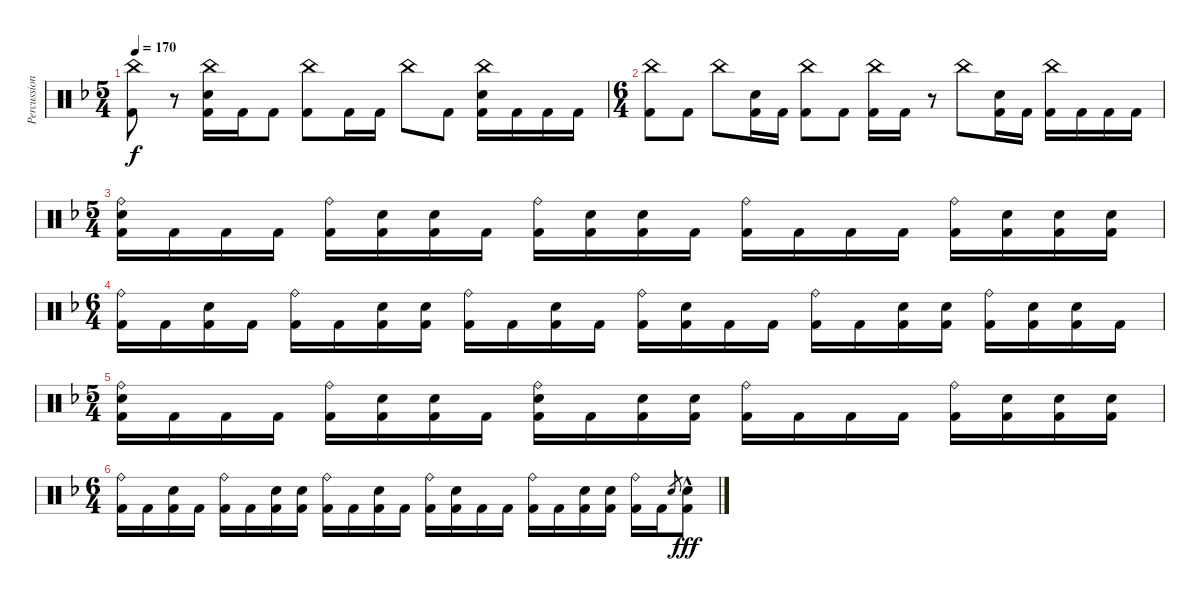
\track ("Percussion" "Percussion") {instrument percussion}
\staff {score}
\articulation defaults
\ts (5 4)
\tempo 170
\clef neutral
\ks dminor
("China (hit)" "Kick (hit) 2").8{dy f} r.8 ("China (hit)" "Electric Snare (hit)" "Kick (hit) 2").16 "Kick (hit) 2".16 "Kick (hit) 2".8 ("China (hit)" "Kick (hit) 2").8 "Kick (hit) 2".16 "Kick (hit) 2".16 "China (hit)".8 "Kick (hit) 2".8 ("China (hit)" "Electric Snare (hit)" "Kick (hit) 2").16 "Kick (hit) 2".16 "Kick (hit) 2".16 "Kick (hit) 2".16 |
\ts (6 4)
("China (hit)" "Kick (hit) 2").8 "Kick (hit) 2".8 "China (hit)".8 ("Electric Snare (hit)" "Kick (hit) 2").16 "Kick (hit) 2".16 ("China (hit)" "Kick (hit) 2").8 "Kick (hit) 2".8 ("China (hit)" "Kick (hit) 2").16 "Kick (hit) 2".16 r.8 "China (hit)".8 ("Electric Snare (hit)" "Kick (hit) 2").16 "Kick (hit) 2".16 ("China (hit)" "Kick (hit) 2").16 "Kick (hit) 2".16 "Kick (hit) 2".16 "Kick (hit) 2".16 |
\ts (5 4)
("Ride (bell)" "Electric Snare (hit)" "Kick (hit) 2").16 "Kick (hit) 2".16 "Kick (hit) 2".16 "Kick (hit) 2".16 ("Ride (bell)" "Kick (hit) 2").16 ("Electric Snare (hit)" "Kick (hit) 2").16 ("Electric Snare (hit)" "Kick (hit) 2").16 "Kick (hit) 2".16 ("Ride (bell)" "Kick (hit) 2").16 ("Electric Snare (hit)" "Kick (hit) 2").16 ("Electric Snare (hit)" "Kick (hit) 2").16 "Kick (hit) 2".16 ("Ride (bell)" "Kick (hit) 2").16 "Kick (hit) 2".16 "Kick (hit) 2".16 "Kick (hit) 2".16 ("Ride (bell)" "Kick (hit) 2").16 ("Electric Snare (hit)" "Kick (hit) 2").16 ("Electric Snare (hit)" "Kick (hit) 2").16 ("Electric Snare (hit)" "Kick (hit) 2").16 |
\ts (6 4)
("Ride (bell)" "Kick (hit) 2").16 "Kick (hit) 2".16 ("Electric Snare (hit)" "Kick (hit) 2").16 "Kick (hit) 2".16 ("Ride (bell)" "Kick (hit) 2").16 "Kick (hit) 2".16 ("Electric Snare (hit)" "Kick (hit) 2").16 ("Electric Snare (hit)" "Kick (hit) 2").16 ("Ride (bell)" "Kick (hit) 2").16 "Kick (hit) 2".16 ("Electric Snare (hit)" "Kick (hit) 2").16 "Kick (hit) 2".16 ("Ride (bell)" "Kick (hit) 2").16 ("Electric Snare (hit)" "Kick (hit) 2").16 "Kick (hit) 2".16 "Kick (hit) 2".16 ("Ride (bell)" "Kick (hit) 2").16 "Kick (hit) 2".16 ("Electric Snare (hit)" "Kick (hit) 2").16 ("Electric Snare (hit)" "Kick (hit) 2").16 ("Ride (bell)" "Kick (hit) 2").16 ("Electric Snare (hit)" "Kick (hit) 2").16 ("Electric Snare (hit)" "Kick (hit) 2").16 "Kick (hit) 2".16 |
\ts (5 4)
("Ride (bell)" "Electric Snare (hit)" "Kick (hit) 2").16 "Kick (hit) 2".16 "Kick (hit) 2".16 "Kick (hit) 2".16 ("Ride (bell)" "Kick (hit) 2").16 ("Electric Snare (hit)" "Kick (hit) 2").16 ("Electric Snare (hit)" "Kick (hit) 2").16 "Kick (hit) 2".16 ("Ride (bell)" "Electric Snare (hit)" "Kick (hit) 2").16 "Kick (hit) 2".16 ("Electric Snare (hit)" "Kick (hit) 2").16 ("Electric Snare (hit)" "Kick (hit) 2").16 ("Ride (bell)" "Kick (hit) 2").16 "Kick (hit) 2".16 "Kick (hit) 2".16 "Kick (hit) 2".16 ("Ride (bell)" "Kick (hit) 2").16 ("Electric Snare (hit)" "Kick (hit) 2").16 ("Electric Snare (hit)" "Kick (hit) 2").16 ("Electric Snare (hit)" "Kick (hit) 2").16 |
\ts (6 4)
("Ride (bell)" "Kick (hit) 2").16 "Kick (hit) 2".16 ("Electric Snare (hit)" "Kick (hit) 2").16 "Kick (hit) 2".16 ("Ride (bell)" "Kick (hit) 2").16 "Kick (hit) 2".16 ("Electric Snare (hit)" "Kick (hit) 2").16 ("Electric Snare (hit)" "Kick (hit) 2").16 ("Ride (bell)" "Kick (hit) 2").16 "Kick (hit) 2".16 ("Electric Snare (hit)" "Kick (hit) 2").16 "Kick (hit) 2".16 ("Ride (bell)" "Kick (hit) 2").16 ("Electric Snare (hit)" "Kick (hit) 2").16 "Kick (hit) 2".16 "Kick (hit) 2".16 ("Ride (bell)" "Kick (hit) 2").16 "Kick (hit) 2".16 ("Electric Snare (hit)" "Kick (hit) 2").16 ("Electric Snare (hit)" "Kick (hit) 2").16 ("Ride (bell)" "Kick (hit) 2").16 "Kick (hit) 2".16 "Electric Snare (hit)".8{gr} ("Electric Snare (hit)"{hac} "Kick (hit) 2").8{dy fff}
